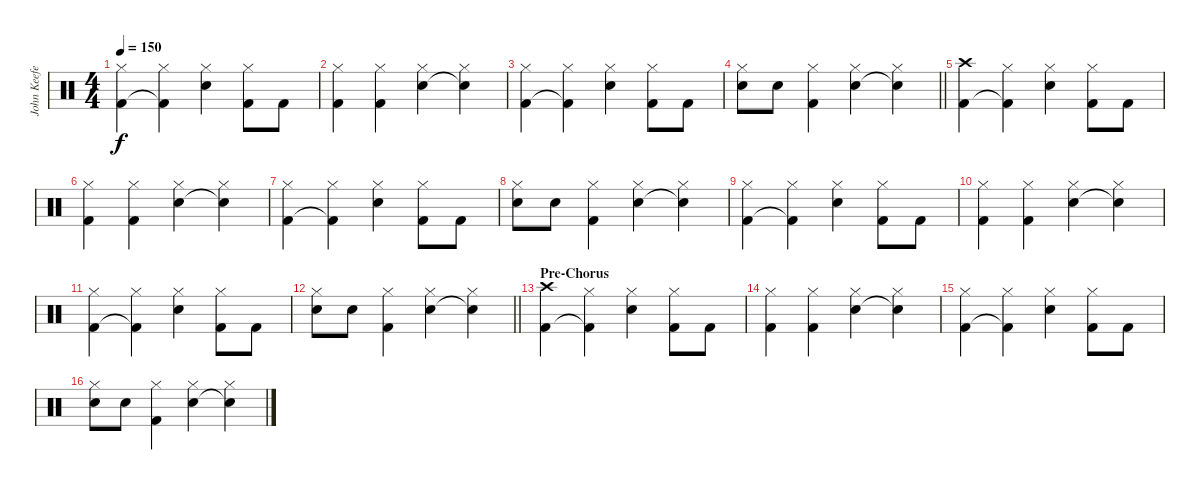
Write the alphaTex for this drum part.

\track ("John Keefe (Percussion)" "John Keefe") {instrument percussion}
\staff {score}
\articulation defaults
\ts (4 4)
\tempo 150
\clef neutral
\ks c
("Hi-Hat (closed)" "Kick (hit) 2").4{dy f} ("Hi-Hat (closed)" "Kick (hit) 2"{t}).4 ("Hi-Hat (closed)" "Snare (hit) 2").4 ("Hi-Hat (closed)" "Kick (hit) 2").8 "Kick (hit) 2".8 |
("Hi-Hat (closed)" "Kick (hit) 2").4 ("Hi-Hat (closed)" "Kick (hit) 2").4 ("Hi-Hat (closed)" "Snare (hit) 2").4 ("Hi-Hat (closed)" "Snare (hit) 2"{t}).4 |
("Hi-Hat (closed)" "Kick (hit) 2").4 ("Hi-Hat (closed)" "Kick (hit) 2"{t}).4 ("Hi-Hat (closed)" "Snare (hit) 2").4 ("Hi-Hat (closed)" "Kick (hit) 2").8 "Kick (hit) 2".8 |
\barLineRight lightlight
("Hi-Hat (closed)" "Snare (hit) 2").8 "Snare (hit) 2".8 ("Hi-Hat (closed)" "Kick (hit) 2").4 ("Hi-Hat (closed)" "Snare (hit) 2").4 ("Hi-Hat (closed)" "Snare (hit) 2"{t}).4 |
("Crash high (hit)" "Kick (hit) 2").4 ("Hi-Hat (closed)" "Kick (hit) 2"{t}).4 ("Hi-Hat (closed)" "Snare (hit) 2").4 ("Hi-Hat (closed)" "Kick (hit) 2").8 "Kick (hit) 2".8 |
("Hi-Hat (closed)" "Kick (hit) 2").4 ("Hi-Hat (closed)" "Kick (hit) 2").4 ("Hi-Hat (closed)" "Snare (hit) 2").4 ("Hi-Hat (closed)" "Snare (hit) 2"{t}).4 |
("Hi-Hat (closed)" "Kick (hit) 2").4 ("Hi-Hat (closed)" "Kick (hit) 2"{t}).4 ("Hi-Hat (closed)" "Snare (hit) 2").4 ("Hi-Hat (closed)" "Kick (hit) 2").8 "Kick (hit) 2".8 |
("Hi-Hat (closed)" "Snare (hit) 2").8 "Snare (hit) 2".8 ("Hi-Hat (closed)" "Kick (hit) 2").4 ("Hi-Hat (closed)" "Snare (hit) 2").4 ("Hi-Hat (closed)" "Snare (hit) 2"{t}).4 |
("Hi-Hat (closed)" "Kick (hit) 2").4 ("Hi-Hat (closed)" "Kick (hit) 2"{t}).4 ("Hi-Hat (closed)" "Snare (hit) 2").4 ("Hi-Hat (closed)" "Kick (hit) 2").8 "Kick (hit) 2".8 |
("Hi-Hat (closed)" "Kick (hit) 2").4 ("Hi-Hat (closed)" "Kick (hit) 2").4 ("Hi-Hat (closed)" "Snare (hit) 2").4 ("Hi-Hat (closed)" "Snare (hit) 2"{t}).4 |
("Hi-Hat (closed)" "Kick (hit) 2").4 ("Hi-Hat (closed)" "Kick (hit) 2"{t}).4 ("Hi-Hat (closed)" "Snare (hit) 2").4 ("Hi-Hat (closed)" "Kick (hit) 2").8 "Kick (hit) 2".8 |
\barLineRight lightlight
("Hi-Hat (closed)" "Snare (hit) 2").8 "Snare (hit) 2".8 ("Hi-Hat (closed)" "Kick (hit) 2").4 ("Hi-Hat (closed)" "Snare (hit) 2").4 ("Hi-Hat (closed)" "Snare (hit) 2"{t}).4 |
\section ("" "Pre-Chorus")
("Crash high (hit)" "Kick (hit) 2").4 ("Hi-Hat (closed)" "Kick (hit) 2"{t}).4 ("Hi-Hat (closed)" "Snare (hit) 2").4 ("Hi-Hat (closed)" "Kick (hit) 2").8 "Kick (hit) 2".8 |
("Hi-Hat (closed)" "Kick (hit) 2").4 ("Hi-Hat (closed)" "Kick (hit) 2").4 ("Hi-Hat (closed)" "Snare (hit) 2").4 ("Hi-Hat (closed)" "Snare (hit) 2"{t}).4 |
("Hi-Hat (closed)" "Kick (hit) 2").4 ("Hi-Hat (closed)" "Kick (hit) 2"{t}).4 ("Hi-Hat (closed)" "Snare (hit) 2").4 ("Hi-Hat (closed)" "Kick (hit) 2").8 "Kick (hit) 2".8 |
("Hi-Hat (closed)" "Snare (hit) 2").8 "Snare (hit) 2".8 ("Hi-Hat (closed)" "Kick (hit) 2").4 ("Hi-Hat (closed)" "Snare (hit) 2").4 ("Hi-Hat (closed)" "Snare (hit) 2"{t}).4
